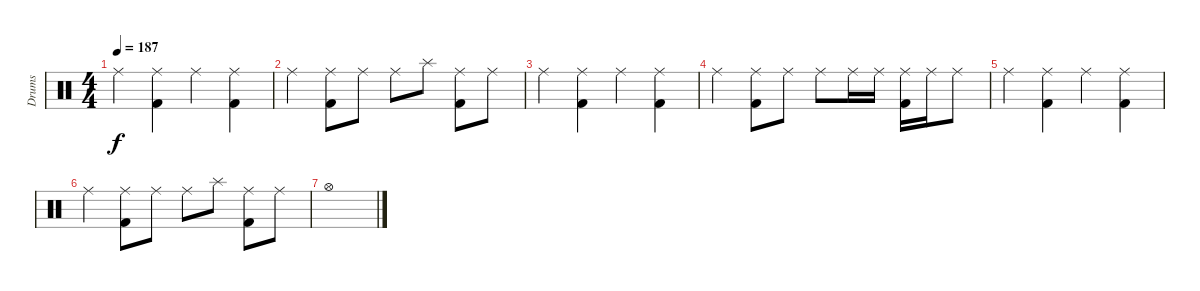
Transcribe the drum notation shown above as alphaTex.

\track ("Drums" "Drums") {instrument percussion}
\staff {score}
\articulation defaults
\ts (4 4)
\tempo 187
\clef neutral
\ks c "Ride (middle)".4{dy f}
("Ride (middle)" "Kick (hit) 2").4 "Ride (middle)".4 ("Ride (middle)" "Kick (hit) 2").4 |
"Ride (middle)".4 ("Ride (middle)" "Kick (hit) 2").8 "Ride (middle)".8 "Ride (middle)".8 "Splash (hit)".8 ("Ride (middle)" "Kick (hit) 2").8 "Ride (middle)".8 |
"Ride (middle)".4 ("Ride (middle)" "Kick (hit) 2").4 "Ride (middle)".4 ("Ride (middle)" "Kick (hit) 2").4 |
"Ride (middle)".4 ("Ride (middle)" "Kick (hit) 2").8 "Ride (middle)".8 "Ride (middle)".8 "Ride (middle)".16 "Ride (middle)".16 ("Ride (middle)" "Kick (hit) 2").16 "Ride (middle)".16 "Ride (middle)".8 |
"Ride (middle)".4 ("Ride (middle)" "Kick (hit) 2").4 "Ride (middle)".4 ("Ride (middle)" "Kick (hit) 2").4 |
"Ride (middle)".4 ("Ride (middle)" "Kick (hit) 2").8 "Ride (middle)".8 "Ride (middle)".8 "Splash (hit)".8 ("Ride (middle)" "Kick (hit) 2").8 "Ride (middle)".8 |
"Hi-Hat (open)".1
